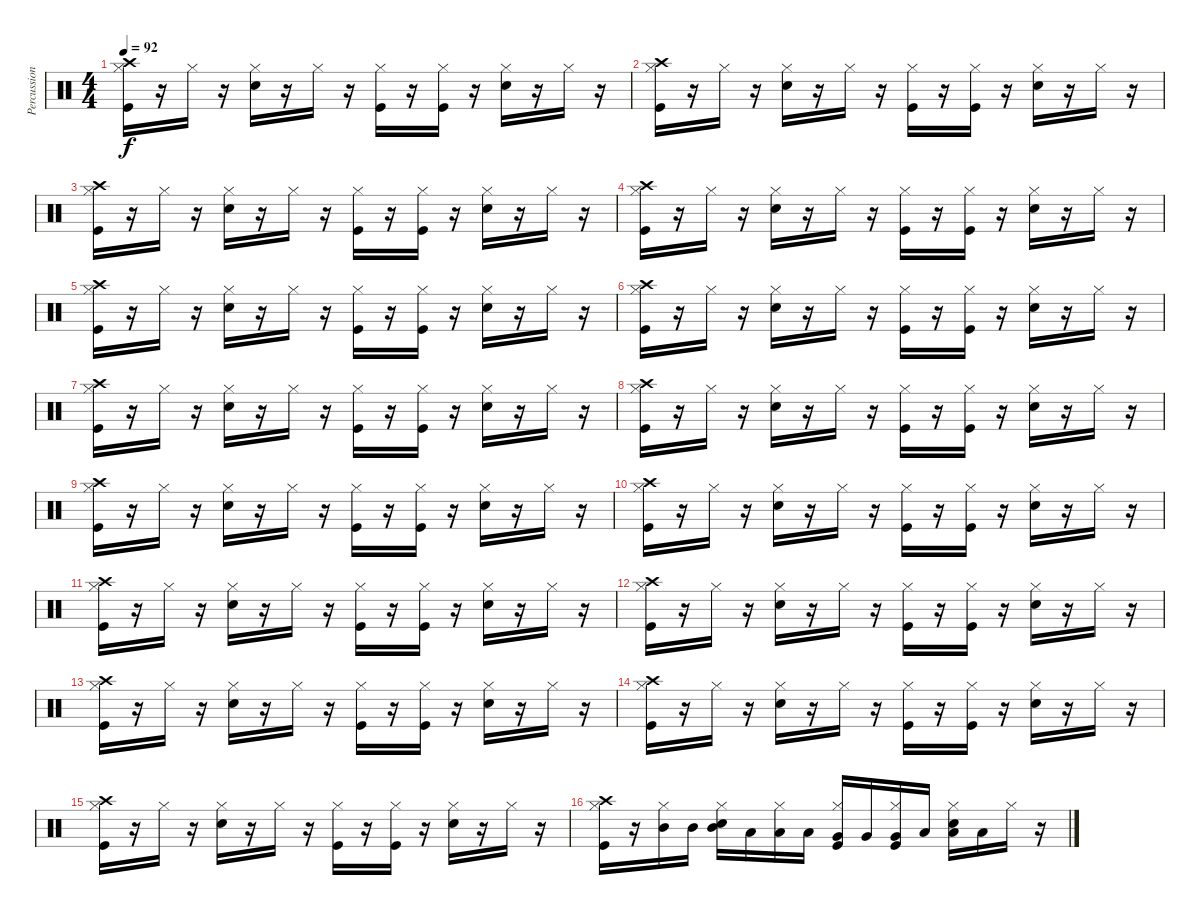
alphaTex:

\track ("Percussion" "Percussion") {instrument percussion}
\staff {score}
\articulation defaults
\ts (4 4)
\tempo 92
\clef neutral
\ks c
("Crash high (hit)" "Kick (hit)" "Hi-Hat (closed)").16{dy f} r.16 "Hi-Hat (closed)".16 r.16 ("Hi-Hat (closed)" "Snare (hit) 2").16 r.16 "Hi-Hat (closed)".16 r.16 ("Kick (hit)" "Hi-Hat (closed)").16 r.16 ("Kick (hit)" "Hi-Hat (closed)").16 r.16 ("Snare (hit) 2" "Hi-Hat (closed)").16 r.16 "Hi-Hat (closed)".16 r.16 |
("Crash high (hit)" "Kick (hit)" "Hi-Hat (closed)").16 r.16 "Hi-Hat (closed)".16 r.16 ("Hi-Hat (closed)" "Snare (hit) 2").16 r.16 "Hi-Hat (closed)".16 r.16 ("Kick (hit)" "Hi-Hat (closed)").16 r.16 ("Kick (hit)" "Hi-Hat (closed)").16 r.16 ("Snare (hit) 2" "Hi-Hat (closed)").16 r.16 "Hi-Hat (closed)".16 r.16 |
("Crash high (hit)" "Kick (hit)" "Hi-Hat (closed)").16 r.16 "Hi-Hat (closed)".16 r.16 ("Hi-Hat (closed)" "Snare (hit) 2").16 r.16 "Hi-Hat (closed)".16 r.16 ("Kick (hit)" "Hi-Hat (closed)").16 r.16 ("Kick (hit)" "Hi-Hat (closed)").16 r.16 ("Snare (hit) 2" "Hi-Hat (closed)").16 r.16 "Hi-Hat (closed)".16 r.16 |
("Crash high (hit)" "Kick (hit)" "Hi-Hat (closed)").16 r.16 "Hi-Hat (closed)".16 r.16 ("Hi-Hat (closed)" "Snare (hit) 2").16 r.16 "Hi-Hat (closed)".16 r.16 ("Kick (hit)" "Hi-Hat (closed)").16 r.16 ("Kick (hit)" "Hi-Hat (closed)").16 r.16 ("Snare (hit) 2" "Hi-Hat (closed)").16 r.16 "Hi-Hat (closed)".16 r.16 |
("Crash high (hit)" "Kick (hit)" "Hi-Hat (closed)").16 r.16 "Hi-Hat (closed)".16 r.16 ("Hi-Hat (closed)" "Snare (hit) 2").16 r.16 "Hi-Hat (closed)".16 r.16 ("Kick (hit)" "Hi-Hat (closed)").16 r.16 ("Kick (hit)" "Hi-Hat (closed)").16 r.16 ("Snare (hit) 2" "Hi-Hat (closed)").16 r.16 "Hi-Hat (closed)".16 r.16 |
("Crash high (hit)" "Kick (hit)" "Hi-Hat (closed)").16 r.16 "Hi-Hat (closed)".16 r.16 ("Hi-Hat (closed)" "Snare (hit) 2").16 r.16 "Hi-Hat (closed)".16 r.16 ("Kick (hit)" "Hi-Hat (closed)").16 r.16 ("Kick (hit)" "Hi-Hat (closed)").16 r.16 ("Snare (hit) 2" "Hi-Hat (closed)").16 r.16 "Hi-Hat (closed)".16 r.16 |
("Crash high (hit)" "Kick (hit)" "Hi-Hat (closed)").16 r.16 "Hi-Hat (closed)".16 r.16 ("Hi-Hat (closed)" "Snare (hit) 2").16 r.16 "Hi-Hat (closed)".16 r.16 ("Kick (hit)" "Hi-Hat (closed)").16 r.16 ("Kick (hit)" "Hi-Hat (closed)").16 r.16 ("Snare (hit) 2" "Hi-Hat (closed)").16 r.16 "Hi-Hat (closed)".16 r.16 |
("Crash high (hit)" "Kick (hit)" "Hi-Hat (closed)").16 r.16 "Hi-Hat (closed)".16 r.16 ("Hi-Hat (closed)" "Snare (hit) 2").16 r.16 "Hi-Hat (closed)".16 r.16 ("Kick (hit)" "Hi-Hat (closed)").16 r.16 ("Kick (hit)" "Hi-Hat (closed)").16 r.16 ("Snare (hit) 2" "Hi-Hat (closed)").16 r.16 "Hi-Hat (closed)".16 r.16 |
("Crash high (hit)" "Kick (hit)" "Hi-Hat (closed)").16 r.16 "Hi-Hat (closed)".16 r.16 ("Hi-Hat (closed)" "Snare (hit) 2").16 r.16 "Hi-Hat (closed)".16 r.16 ("Kick (hit)" "Hi-Hat (closed)").16 r.16 ("Kick (hit)" "Hi-Hat (closed)").16 r.16 ("Snare (hit) 2" "Hi-Hat (closed)").16 r.16 "Hi-Hat (closed)".16 r.16 |
("Crash high (hit)" "Kick (hit)" "Hi-Hat (closed)").16 r.16 "Hi-Hat (closed)".16 r.16 ("Hi-Hat (closed)" "Snare (hit) 2").16 r.16 "Hi-Hat (closed)".16 r.16 ("Kick (hit)" "Hi-Hat (closed)").16 r.16 ("Kick (hit)" "Hi-Hat (closed)").16 r.16 ("Snare (hit) 2" "Hi-Hat (closed)").16 r.16 "Hi-Hat (closed)".16 r.16 |
("Crash high (hit)" "Kick (hit)" "Hi-Hat (closed)").16 r.16 "Hi-Hat (closed)".16 r.16 ("Hi-Hat (closed)" "Snare (hit) 2").16 r.16 "Hi-Hat (closed)".16 r.16 ("Kick (hit)" "Hi-Hat (closed)").16 r.16 ("Kick (hit)" "Hi-Hat (closed)").16 r.16 ("Snare (hit) 2" "Hi-Hat (closed)").16 r.16 "Hi-Hat (closed)".16 r.16 |
("Crash high (hit)" "Kick (hit)" "Hi-Hat (closed)").16 r.16 "Hi-Hat (closed)".16 r.16 ("Hi-Hat (closed)" "Snare (hit) 2").16 r.16 "Hi-Hat (closed)".16 r.16 ("Kick (hit)" "Hi-Hat (closed)").16 r.16 ("Kick (hit)" "Hi-Hat (closed)").16 r.16 ("Snare (hit) 2" "Hi-Hat (closed)").16 r.16 "Hi-Hat (closed)".16 r.16 |
("Crash high (hit)" "Kick (hit)" "Hi-Hat (closed)").16 r.16 "Hi-Hat (closed)".16 r.16 ("Hi-Hat (closed)" "Snare (hit) 2").16 r.16 "Hi-Hat (closed)".16 r.16 ("Kick (hit)" "Hi-Hat (closed)").16 r.16 ("Kick (hit)" "Hi-Hat (closed)").16 r.16 ("Snare (hit) 2" "Hi-Hat (closed)").16 r.16 "Hi-Hat (closed)".16 r.16 |
("Crash high (hit)" "Kick (hit)" "Hi-Hat (closed)").16 r.16 "Hi-Hat (closed)".16 r.16 ("Hi-Hat (closed)" "Snare (hit) 2").16 r.16 "Hi-Hat (closed)".16 r.16 ("Kick (hit)" "Hi-Hat (closed)").16 r.16 ("Kick (hit)" "Hi-Hat (closed)").16 r.16 ("Snare (hit) 2" "Hi-Hat (closed)").16 r.16 "Hi-Hat (closed)".16 r.16 |
("Crash high (hit)" "Kick (hit)" "Hi-Hat (closed)").16 r.16 "Hi-Hat (closed)".16 r.16 ("Hi-Hat (closed)" "Snare (hit) 2").16 r.16 "Hi-Hat (closed)".16 r.16 ("Kick (hit)" "Hi-Hat (closed)").16 r.16 ("Kick (hit)" "Hi-Hat (closed)").16 r.16 ("Snare (hit) 2" "Hi-Hat (closed)").16 r.16 "Hi-Hat (closed)".16 r.16 |
("Crash high (hit)" "Kick (hit)" "Hi-Hat (closed)").16 r.16 ("Hi-Hat (closed)" "Mid Tom (hit)").16 "Mid Tom (hit)".16 ("Hi-Hat (closed)" "Snare (hit) 2" "Mid Tom (hit)").16 "Low Tom (hit)".16 ("Hi-Hat (closed)" "Low Tom (hit)").16 "Low Tom (hit)".16 ("Kick (hit)" "Hi-Hat (closed)" "Very Low Tom (hit)").16 "Very Low Tom (hit)".16 ("Kick (hit)" "Hi-Hat (closed)" "Very Low Tom (hit)").16 "Low Floor Tom (hit)".16 ("Snare (hit) 2" "Hi-Hat (closed)" "Low Floor Tom (hit)").16 "Low Floor Tom (hit)".16 "Hi-Hat (closed)".16 r.16
